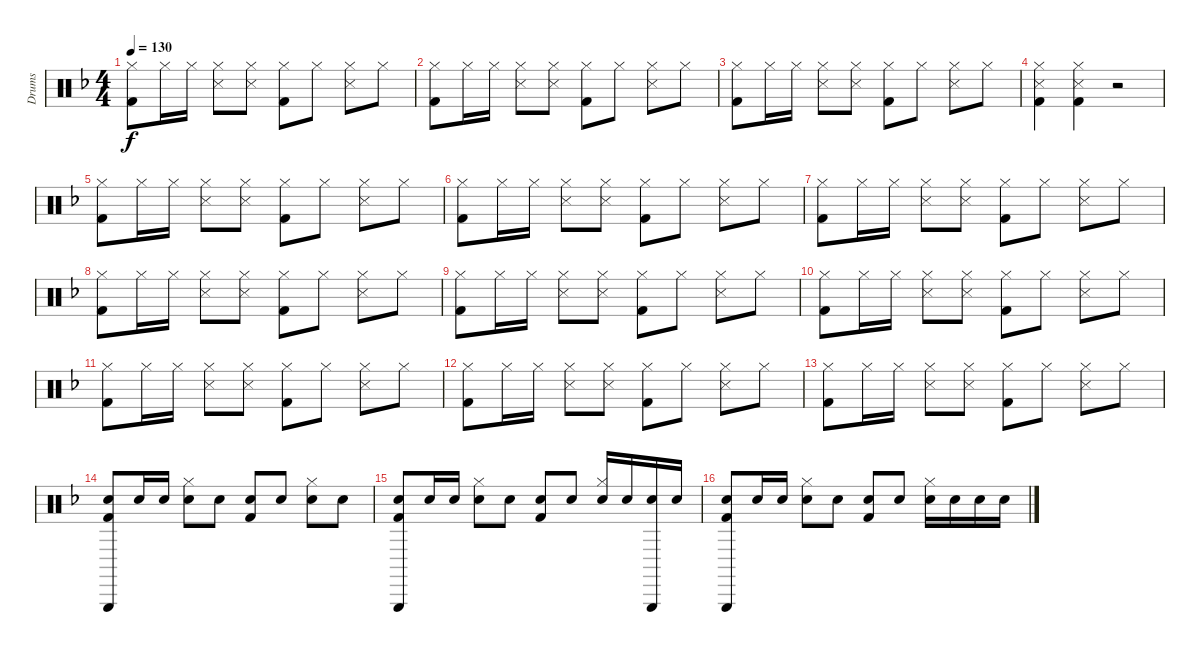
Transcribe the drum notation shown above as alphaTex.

\track ("Drums" "Drums") {instrument percussion}
\staff {score}
\articulation defaults
\ts (4 4)
\tempo 130
\clef neutral
\ks f
("Hi-Hat (closed)" "Kick (hit) 2").8{dy f} "Hi-Hat (closed)".16 "Hi-Hat (closed)".16 ("Hi-Hat (closed)" "Snare (side stick) 3").8 ("Hi-Hat (closed)" "Snare (side stick) 3").8 ("Hi-Hat (closed)" "Kick (hit) 2").8 "Hi-Hat (closed)".8 ("Hi-Hat (closed)" "Snare (side stick) 3").8 "Hi-Hat (closed)".8 |
("Hi-Hat (closed)" "Kick (hit) 2").8 "Hi-Hat (closed)".16 "Hi-Hat (closed)".16 ("Hi-Hat (closed)" "Snare (side stick) 3").8 ("Hi-Hat (closed)" "Snare (side stick) 3").8 ("Hi-Hat (closed)" "Kick (hit) 2").8 "Hi-Hat (closed)".8 ("Hi-Hat (closed)" "Snare (side stick) 3").8 "Hi-Hat (closed)".8 |
("Hi-Hat (closed)" "Kick (hit) 2").8 "Hi-Hat (closed)".16 "Hi-Hat (closed)".16 ("Hi-Hat (closed)" "Snare (side stick) 3").8 ("Hi-Hat (closed)" "Snare (side stick) 3").8 ("Hi-Hat (closed)" "Kick (hit) 2").8 "Hi-Hat (closed)".8 ("Hi-Hat (closed)" "Snare (side stick) 3").8 "Hi-Hat (closed)".8 |
("Hi-Hat (closed)" "Snare (side stick) 3" "Kick (hit) 2").4 ("Hi-Hat (closed)" "Snare (side stick) 3" "Kick (hit) 2").4 r.2 |
("Hi-Hat (closed)" "Kick (hit) 2").8 "Hi-Hat (closed)".16 "Hi-Hat (closed)".16 ("Hi-Hat (closed)" "Snare (side stick) 3").8 ("Hi-Hat (closed)" "Snare (side stick) 3").8 ("Hi-Hat (closed)" "Kick (hit) 2").8 "Hi-Hat (closed)".8 ("Hi-Hat (closed)" "Snare (side stick) 3").8 "Hi-Hat (closed)".8 |
("Hi-Hat (closed)" "Kick (hit) 2").8 "Hi-Hat (closed)".16 "Hi-Hat (closed)".16 ("Hi-Hat (closed)" "Snare (side stick) 3").8 ("Hi-Hat (closed)" "Snare (side stick) 3").8 ("Hi-Hat (closed)" "Kick (hit) 2").8 "Hi-Hat (closed)".8 ("Hi-Hat (closed)" "Snare (side stick) 3").8 "Hi-Hat (closed)".8 |
("Hi-Hat (closed)" "Kick (hit) 2").8 "Hi-Hat (closed)".16 "Hi-Hat (closed)".16 ("Hi-Hat (closed)" "Snare (side stick) 3").8 ("Hi-Hat (closed)" "Snare (side stick) 3").8 ("Hi-Hat (closed)" "Kick (hit) 2").8 "Hi-Hat (closed)".8 ("Hi-Hat (closed)" "Snare (side stick) 3").8 "Hi-Hat (closed)".8 |
("Hi-Hat (closed)" "Kick (hit) 2").8 "Hi-Hat (closed)".16 "Hi-Hat (closed)".16 ("Hi-Hat (closed)" "Snare (side stick) 3").8 ("Hi-Hat (closed)" "Snare (side stick) 3").8 ("Hi-Hat (closed)" "Kick (hit) 2").8 "Hi-Hat (closed)".8 ("Hi-Hat (closed)" "Snare (side stick) 3").8 "Hi-Hat (closed)".8 |
("Hi-Hat (closed)" "Kick (hit) 2").8 "Hi-Hat (closed)".16 "Hi-Hat (closed)".16 ("Hi-Hat (closed)" "Snare (side stick) 3").8 ("Hi-Hat (closed)" "Snare (side stick) 3").8 ("Hi-Hat (closed)" "Kick (hit) 2").8 "Hi-Hat (closed)".8 ("Hi-Hat (closed)" "Snare (side stick) 3").8 "Hi-Hat (closed)".8 |
("Hi-Hat (closed)" "Kick (hit) 2").8 "Hi-Hat (closed)".16 "Hi-Hat (closed)".16 ("Hi-Hat (closed)" "Snare (side stick) 3").8 ("Hi-Hat (closed)" "Snare (side stick) 3").8 ("Hi-Hat (closed)" "Kick (hit) 2").8 "Hi-Hat (closed)".8 ("Hi-Hat (closed)" "Snare (side stick) 3").8 "Hi-Hat (closed)".8 |
("Hi-Hat (closed)" "Kick (hit) 2").8 "Hi-Hat (closed)".16 "Hi-Hat (closed)".16 ("Hi-Hat (closed)" "Snare (side stick) 3").8 ("Hi-Hat (closed)" "Snare (side stick) 3").8 ("Hi-Hat (closed)" "Kick (hit) 2").8 "Hi-Hat (closed)".8 ("Hi-Hat (closed)" "Snare (side stick) 3").8 "Hi-Hat (closed)".8 |
("Hi-Hat (closed)" "Kick (hit) 2").8 "Hi-Hat (closed)".16 "Hi-Hat (closed)".16 ("Hi-Hat (closed)" "Snare (side stick) 3").8 ("Hi-Hat (closed)" "Snare (side stick) 3").8 ("Hi-Hat (closed)" "Kick (hit) 2").8 "Hi-Hat (closed)".8 ("Hi-Hat (closed)" "Snare (side stick) 3").8 "Hi-Hat (closed)".8 |
("Hi-Hat (closed)" "Kick (hit) 2").8 "Hi-Hat (closed)".16 "Hi-Hat (closed)".16 ("Hi-Hat (closed)" "Snare (side stick) 3").8 ("Hi-Hat (closed)" "Snare (side stick) 3").8 ("Hi-Hat (closed)" "Kick (hit) 2").8 "Hi-Hat (closed)".8 ("Hi-Hat (closed)" "Snare (side stick) 3").8 "Hi-Hat (closed)".8 |
("Triangle (hit)" "Snare (hit) 2" "Kick (hit) 2").8 "Snare (hit) 2".16 "Snare (hit) 2".16 ("Hi-Hat (closed)" "Snare (hit) 2").8 "Snare (hit) 2".8 ("Snare (hit) 2" "Kick (hit) 2").8 "Snare (hit) 2".8 ("Hi-Hat (closed)" "Snare (hit) 2").8 "Snare (hit) 2".8 |
("Triangle (hit)" "Snare (hit) 2" "Kick (hit) 2").8 "Snare (hit) 2".16 "Snare (hit) 2".16 ("Hi-Hat (closed)" "Snare (hit) 2").8 "Snare (hit) 2".8 ("Snare (hit) 2" "Kick (hit) 2").8 "Snare (hit) 2".8 ("Hi-Hat (closed)" "Snare (hit) 2").16 "Snare (hit) 2".16 ("Triangle (hit)" "Snare (hit) 2").16 "Snare (hit) 2".16 |
("Triangle (hit)" "Snare (hit) 2" "Kick (hit) 2").8 "Snare (hit) 2".16 "Snare (hit) 2".16 ("Hi-Hat (closed)" "Snare (hit) 2").8 "Snare (hit) 2".8 ("Snare (hit) 2" "Kick (hit) 2").8 "Snare (hit) 2".8 ("Hi-Hat (closed)" "Snare (hit) 2").16 "Snare (hit) 2".16 "Snare (hit) 2".16 "Snare (hit) 2".16
